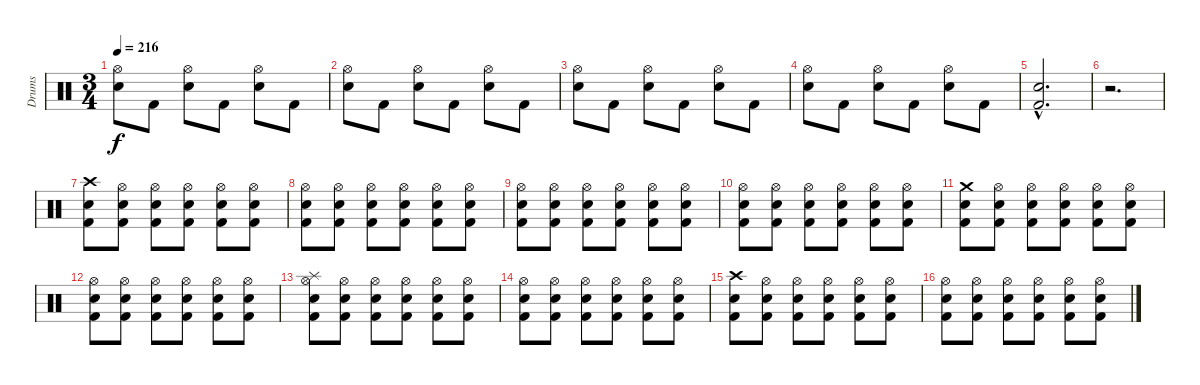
\track ("Drums" "Drums") {instrument percussion}
\staff {score}
\articulation defaults
\ts (3 4)
\tempo 216
\clef neutral
\ks c
("Hi-Hat (open)" "Electric Snare (hit)").8{dy f} "Kick (hit) 2".8 ("Hi-Hat (open)" "Electric Snare (hit)").8 "Kick (hit) 2".8 ("Hi-Hat (open)" "Electric Snare (hit)").8 "Kick (hit) 2".8 |
("Hi-Hat (open)" "Electric Snare (hit)").8 "Kick (hit) 2".8 ("Hi-Hat (open)" "Electric Snare (hit)").8 "Kick (hit) 2".8 ("Hi-Hat (open)" "Electric Snare (hit)").8 "Kick (hit) 2".8 |
("Hi-Hat (open)" "Electric Snare (hit)").8 "Kick (hit) 2".8 ("Hi-Hat (open)" "Electric Snare (hit)").8 "Kick (hit) 2".8 ("Hi-Hat (open)" "Electric Snare (hit)").8 "Kick (hit) 2".8 |
("Hi-Hat (open)" "Electric Snare (hit)").8 "Kick (hit) 2".8 ("Hi-Hat (open)" "Electric Snare (hit)").8 "Kick (hit) 2".8 ("Hi-Hat (open)" "Electric Snare (hit)").8 "Kick (hit) 2".8 |
("Electric Snare (hit)"{hac} "Kick (hit) 2"{hac}).2{d} |
r.2{d} |
("Crash high (hit)" "Electric Snare (hit)" "Kick (hit) 2").8 ("Hi-Hat (open)" "Electric Snare (hit)" "Kick (hit) 2").8 ("Hi-Hat (open)" "Electric Snare (hit)" "Kick (hit) 2").8 ("Hi-Hat (open)" "Electric Snare (hit)" "Kick (hit) 2").8 ("Hi-Hat (open)" "Electric Snare (hit)" "Kick (hit) 2").8 ("Hi-Hat (open)" "Electric Snare (hit)" "Kick (hit) 2").8 |
("Hi-Hat (open)" "Electric Snare (hit)" "Kick (hit) 2").8 ("Hi-Hat (open)" "Electric Snare (hit)" "Kick (hit) 2").8 ("Hi-Hat (open)" "Electric Snare (hit)" "Kick (hit) 2").8 ("Hi-Hat (open)" "Electric Snare (hit)" "Kick (hit) 2").8 ("Hi-Hat (open)" "Electric Snare (hit)" "Kick (hit) 2").8 ("Hi-Hat (open)" "Electric Snare (hit)" "Kick (hit) 2").8 |
("Hi-Hat (open)" "Electric Snare (hit)" "Kick (hit) 2").8 ("Hi-Hat (open)" "Electric Snare (hit)" "Kick (hit) 2").8 ("Hi-Hat (open)" "Electric Snare (hit)" "Kick (hit) 2").8 ("Hi-Hat (open)" "Electric Snare (hit)" "Kick (hit) 2").8 ("Hi-Hat (open)" "Electric Snare (hit)" "Kick (hit) 2").8 ("Hi-Hat (open)" "Electric Snare (hit)" "Kick (hit) 2").8 |
("Hi-Hat (open)" "Electric Snare (hit)" "Kick (hit) 2").8 ("Hi-Hat (open)" "Electric Snare (hit)" "Kick (hit) 2").8 ("Hi-Hat (open)" "Electric Snare (hit)" "Kick (hit) 2").8 ("Hi-Hat (open)" "Electric Snare (hit)" "Kick (hit) 2").8 ("Hi-Hat (open)" "Electric Snare (hit)" "Kick (hit) 2").8 ("Hi-Hat (open)" "Electric Snare (hit)" "Kick (hit) 2").8 |
("Crash medium (hit)" "Electric Snare (hit)" "Kick (hit) 2").8 ("Hi-Hat (open)" "Electric Snare (hit)" "Kick (hit) 2").8 ("Hi-Hat (open)" "Electric Snare (hit)" "Kick (hit) 2").8 ("Hi-Hat (open)" "Electric Snare (hit)" "Kick (hit) 2").8 ("Hi-Hat (open)" "Electric Snare (hit)" "Kick (hit) 2").8 ("Hi-Hat (open)" "Electric Snare (hit)" "Kick (hit) 2").8 |
("Hi-Hat (open)" "Electric Snare (hit)" "Kick (hit) 2").8 ("Hi-Hat (open)" "Electric Snare (hit)" "Kick (hit) 2").8 ("Hi-Hat (open)" "Electric Snare (hit)" "Kick (hit) 2").8 ("Hi-Hat (open)" "Electric Snare (hit)" "Kick (hit) 2").8 ("Hi-Hat (open)" "Electric Snare (hit)" "Kick (hit) 2").8 ("Hi-Hat (open)" "Electric Snare (hit)" "Kick (hit) 2").8 |
("Splash (hit)" "Hi-Hat (open)" "Electric Snare (hit)" "Kick (hit) 2").8 ("Hi-Hat (open)" "Electric Snare (hit)" "Kick (hit) 2").8 ("Hi-Hat (open)" "Electric Snare (hit)" "Kick (hit) 2").8 ("Hi-Hat (open)" "Electric Snare (hit)" "Kick (hit) 2").8 ("Hi-Hat (open)" "Electric Snare (hit)" "Kick (hit) 2").8 ("Hi-Hat (open)" "Electric Snare (hit)" "Kick (hit) 2").8 |
("Hi-Hat (open)" "Electric Snare (hit)" "Kick (hit) 2").8 ("Hi-Hat (open)" "Electric Snare (hit)" "Kick (hit) 2").8 ("Hi-Hat (open)" "Electric Snare (hit)" "Kick (hit) 2").8 ("Hi-Hat (open)" "Electric Snare (hit)" "Kick (hit) 2").8 ("Hi-Hat (open)" "Electric Snare (hit)" "Kick (hit) 2").8 ("Hi-Hat (open)" "Electric Snare (hit)" "Kick (hit) 2").8 |
("Crash high (hit)" "Electric Snare (hit)" "Kick (hit) 2").8 ("Hi-Hat (open)" "Electric Snare (hit)" "Kick (hit) 2").8 ("Hi-Hat (open)" "Electric Snare (hit)" "Kick (hit) 2").8 ("Hi-Hat (open)" "Electric Snare (hit)" "Kick (hit) 2").8 ("Hi-Hat (open)" "Electric Snare (hit)" "Kick (hit) 2").8 ("Hi-Hat (open)" "Electric Snare (hit)" "Kick (hit) 2").8 |
("Hi-Hat (open)" "Electric Snare (hit)" "Kick (hit) 2").8 ("Hi-Hat (open)" "Electric Snare (hit)" "Kick (hit) 2").8 ("Hi-Hat (open)" "Electric Snare (hit)" "Kick (hit) 2").8 ("Hi-Hat (open)" "Electric Snare (hit)" "Kick (hit) 2").8 ("Hi-Hat (open)" "Electric Snare (hit)" "Kick (hit) 2").8 ("Hi-Hat (open)" "Electric Snare (hit)" "Kick (hit) 2").8
